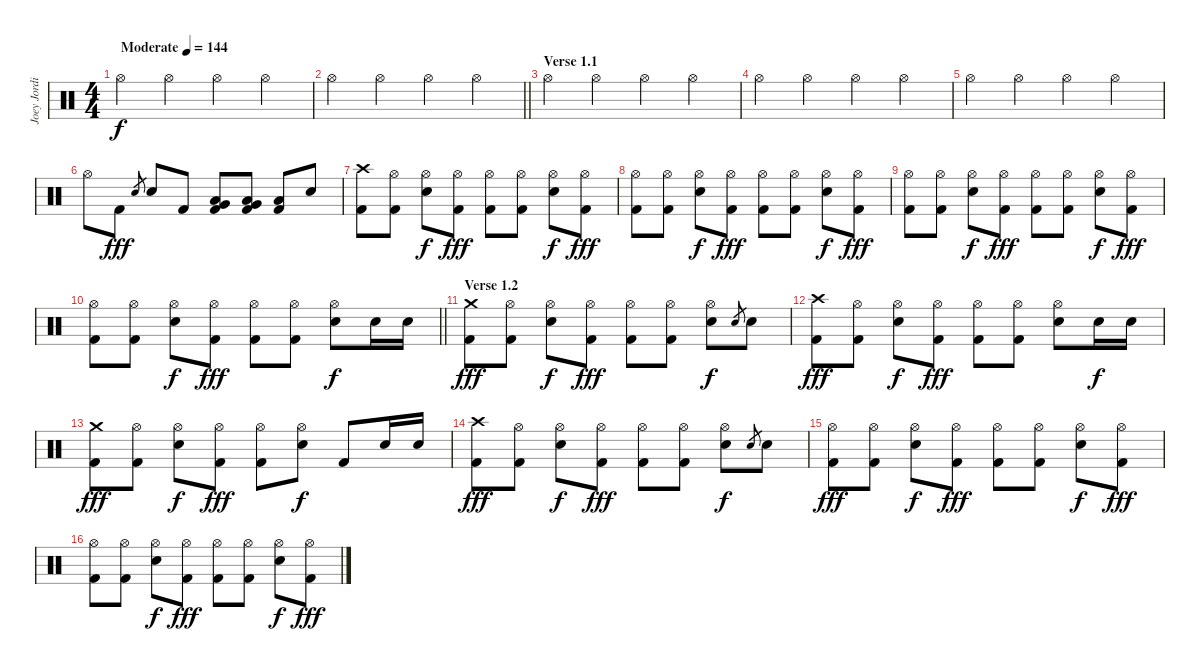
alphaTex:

\track ("Joey Jordison" "Joey Jordi") {instrument percussion}
\staff {score}
\articulation defaults
\ts (4 4)
\tempo (144 "Moderate")
\clef neutral
\ks c "Hi-Hat (open)".4{dy f volume 14} "Hi-Hat (open)".4 "Hi-Hat (open)".4 "Hi-Hat (open)".4
|
\barLineRight lightlight "Hi-Hat (open)".4 "Hi-Hat (open)".4 "Hi-Hat (open)".4 "Hi-Hat (open)".4
|
\section ("" "Verse 1.1")
"Hi-Hat (open)".4 "Hi-Hat (open)".4 "Hi-Hat (open)".4 "Hi-Hat (open)".4 |
"Hi-Hat (open)".4 "Hi-Hat (open)".4 "Hi-Hat (open)".4 "Hi-Hat (open)".4 |
"Hi-Hat (open)".4 "Hi-Hat (open)".4 "Hi-Hat (open)".4 "Hi-Hat (open)".4 |
"Hi-Hat (open)".8 "Kick (hit) 2".8{dy fff} "Electric Snare (hit)".8{gr} "Electric Snare (hit)".8 "Kick (hit) 2".8 ("Very Low Tom (hit)" "Low Floor Tom (hit)" "Kick (hit) 2").8 ("Very Low Tom (hit)" "Low Floor Tom (hit)" "Kick (hit) 2").8 ("Low Floor Tom (hit)" "Kick (hit) 2").8 "Electric Snare (hit)".8 |
("Crash high (hit)" "Kick (hit) 2").8 ("Hi-Hat (open)" "Kick (hit) 2").8 ("Hi-Hat (open)" "Electric Snare (hit)").8{dy f} ("Hi-Hat (open)" "Kick (hit) 2").8{dy fff} ("Hi-Hat (open)" "Kick (hit) 2").8 ("Hi-Hat (open)" "Kick (hit) 2").8 ("Hi-Hat (open)" "Electric Snare (hit)").8{dy f} ("Hi-Hat (open)" "Kick (hit) 2").8{dy fff} |
("Hi-Hat (open)" "Kick (hit) 2").8 ("Hi-Hat (open)" "Kick (hit) 2").8 ("Hi-Hat (open)" "Electric Snare (hit)").8{dy f} ("Hi-Hat (open)" "Kick (hit) 2").8{dy fff} ("Hi-Hat (open)" "Kick (hit) 2").8 ("Hi-Hat (open)" "Kick (hit) 2").8 ("Hi-Hat (open)" "Electric Snare (hit)").8{dy f} ("Hi-Hat (open)" "Kick (hit) 2").8{dy fff} |
("Hi-Hat (open)" "Kick (hit) 2").8 ("Hi-Hat (open)" "Kick (hit) 2").8 ("Hi-Hat (open)" "Electric Snare (hit)").8{dy f} ("Hi-Hat (open)" "Kick (hit) 2").8{dy fff} ("Hi-Hat (open)" "Kick (hit) 2").8 ("Hi-Hat (open)" "Kick (hit) 2").8 ("Hi-Hat (open)" "Electric Snare (hit)").8{dy f} ("Hi-Hat (open)" "Kick (hit) 2").8{dy fff} |
\barLineRight lightlight
("Hi-Hat (open)" "Kick (hit) 2").8 ("Hi-Hat (open)" "Kick (hit) 2").8 ("Hi-Hat (open)" "Electric Snare (hit)").8{dy f} ("Hi-Hat (open)" "Kick (hit) 2").8{dy fff} ("Hi-Hat (open)" "Kick (hit) 2").8 ("Hi-Hat (open)" "Kick (hit) 2").8 ("Hi-Hat (open)" "Electric Snare (hit)").8{dy f} "Electric Snare (hit)".16 "Electric Snare (hit)".16 |
\section ("" "Verse 1.2")
("Crash medium (hit)" "Kick (hit) 2").8{dy fff} ("Hi-Hat (open)" "Kick (hit) 2").8 ("Hi-Hat (open)" "Electric Snare (hit)").8{dy f} ("Hi-Hat (open)" "Kick (hit) 2").8{dy fff} ("Hi-Hat (open)" "Kick (hit) 2").8 ("Hi-Hat (open)" "Kick (hit) 2").8 ("Hi-Hat (open)" "Electric Snare (hit)").8{dy f} "Electric Snare (hit)".8{gr} "Electric Snare (hit)".8 |
("Crash high (hit)" "Kick (hit) 2").8{dy fff} ("Hi-Hat (open)" "Kick (hit) 2").8 ("Hi-Hat (open)" "Electric Snare (hit)").8{dy f} ("Hi-Hat (open)" "Kick (hit) 2").8{dy fff} ("Hi-Hat (open)" "Kick (hit) 2").8 ("Hi-Hat (open)" "Kick (hit) 2").8 ("Hi-Hat (open)" "Electric Snare (hit)").8 "Electric Snare (hit)".16{dy f} "Electric Snare (hit)".16 |
("Crash medium (hit)" "Kick (hit) 2").8{dy fff} ("Hi-Hat (open)" "Kick (hit) 2").8 ("Hi-Hat (open)" "Electric Snare (hit)").8{dy f} ("Hi-Hat (open)" "Kick (hit) 2").8{dy fff} ("Hi-Hat (open)" "Kick (hit) 2").8 ("Hi-Hat (open)" "Electric Snare (hit)").8{dy f} "Kick (hit) 2".8 "Electric Snare (hit)".16 "Electric Snare (hit)".16 |
("Crash high (hit)" "Kick (hit) 2").8{dy fff} ("Hi-Hat (open)" "Kick (hit) 2").8 ("Hi-Hat (open)" "Electric Snare (hit)").8{dy f} ("Hi-Hat (open)" "Kick (hit) 2").8{dy fff} ("Hi-Hat (open)" "Kick (hit) 2").8 ("Hi-Hat (open)" "Kick (hit) 2").8 ("Hi-Hat (open)" "Electric Snare (hit)").8{dy f} "Electric Snare (hit)".8{gr} "Electric Snare (hit)".8 |
("Hi-Hat (open)" "Kick (hit) 2").8{dy fff} ("Hi-Hat (open)" "Kick (hit) 2").8 ("Hi-Hat (open)" "Electric Snare (hit)").8{dy f} ("Hi-Hat (open)" "Kick (hit) 2").8{dy fff} ("Hi-Hat (open)" "Kick (hit) 2").8 ("Hi-Hat (open)" "Kick (hit) 2").8 ("Hi-Hat (open)" "Electric Snare (hit)").8{dy f} ("Hi-Hat (open)" "Kick (hit) 2").8{dy fff} |
("Hi-Hat (open)" "Kick (hit) 2").8 ("Hi-Hat (open)" "Kick (hit) 2").8 ("Hi-Hat (open)" "Electric Snare (hit)").8{dy f} ("Hi-Hat (open)" "Kick (hit) 2").8{dy fff} ("Hi-Hat (open)" "Kick (hit) 2").8 ("Hi-Hat (open)" "Kick (hit) 2").8 ("Hi-Hat (open)" "Electric Snare (hit)").8{dy f} ("Hi-Hat (open)" "Kick (hit) 2").8{dy fff}
